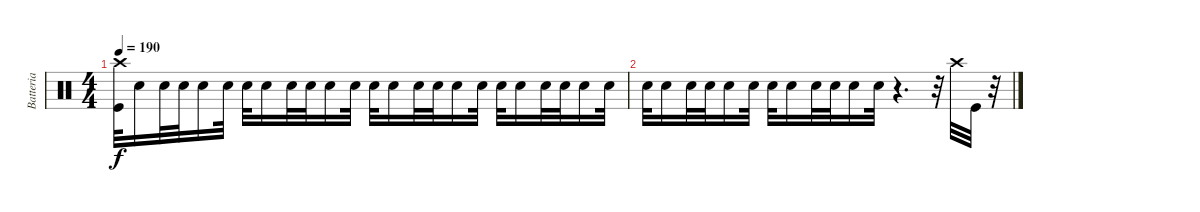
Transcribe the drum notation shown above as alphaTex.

\track ("Batteria" "Batteria") {instrument percussion}
\staff {score}
\articulation defaults
\ts (4 4)
\tempo 190
\clef neutral
\ks c
("Crash high (hit)" "Kick (hit)").32{dy f} "Snare (hit) 2".16 "Snare (hit) 2".32 "Snare (hit) 2".32 "Snare (hit) 2".16 "Snare (hit) 2".32 "Snare (hit) 2".32 "Snare (hit) 2".16 "Snare (hit) 2".32 "Snare (hit) 2".32 "Snare (hit) 2".16 "Snare (hit) 2".32 "Snare (hit) 2".32 "Snare (hit) 2".16 "Snare (hit) 2".32 "Snare (hit) 2".32 "Snare (hit) 2".16 "Snare (hit) 2".32 "Snare (hit) 2".32 "Snare (hit) 2".16 "Snare (hit) 2".32 "Snare (hit) 2".32 "Snare (hit) 2".16 "Snare (hit) 2".32 |
"Snare (hit) 2".32 "Snare (hit) 2".16 "Snare (hit) 2".32 "Snare (hit) 2".32 "Snare (hit) 2".16 "Snare (hit) 2".32 "Snare (hit) 2".32 "Snare (hit) 2".16 "Snare (hit) 2".32 "Snare (hit) 2".32 "Snare (hit) 2".16 "Snare (hit) 2".32 r.4{d} r.32 "Crash high (hit)".32 "Kick (hit)".32 r.32
